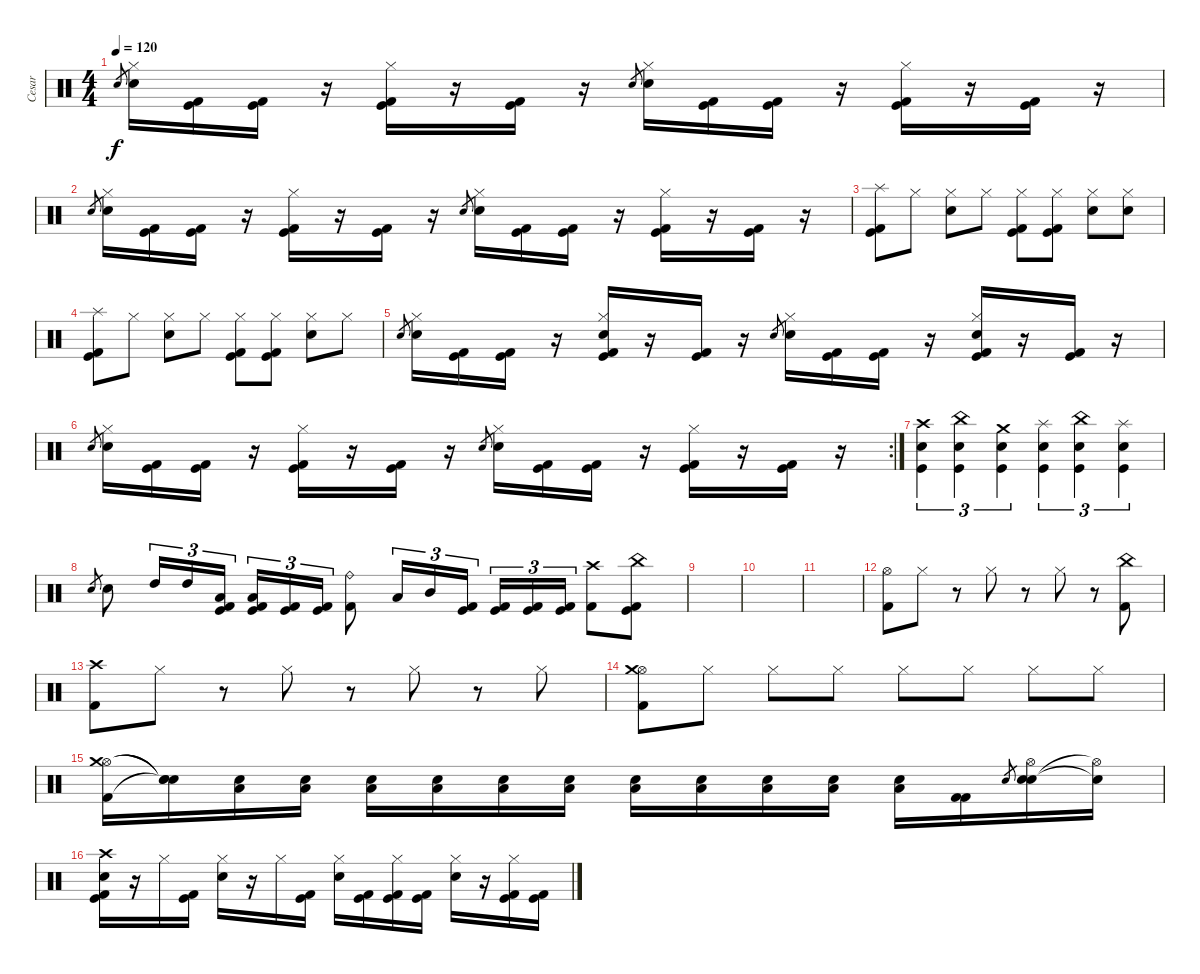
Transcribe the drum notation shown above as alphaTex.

\track ("Cesar" "Cesar") {instrument percussion}
\staff {score}
\articulation defaults
\ts (4 4)
\tempo 120
\clef neutral
\ks c "Electric Snare (hit)".8{gr dy f}
("Hi-Hat (closed)" "Electric Snare (hit)").16 ("Kick (hit) 2" "Kick (hit)").16 ("Kick (hit) 2" "Kick (hit)").16 r.16 ("Hi-Hat (closed)" "Kick (hit) 2" "Kick (hit)").16 r.16 ("Kick (hit) 2" "Kick (hit)").16 r.16 "Electric Snare (hit)".8{gr} ("Hi-Hat (closed)" "Electric Snare (hit)").16 ("Kick (hit) 2" "Kick (hit)").16 ("Kick (hit) 2" "Kick (hit)").16 r.16 ("Hi-Hat (closed)" "Kick (hit) 2" "Kick (hit)").16 r.16 ("Kick (hit) 2" "Kick (hit)").16 r.16 |
"Electric Snare (hit)".8{gr} ("Hi-Hat (closed)" "Electric Snare (hit)").16 ("Kick (hit) 2" "Kick (hit)").16 ("Kick (hit) 2" "Kick (hit)").16 r.16 ("Hi-Hat (closed)" "Kick (hit) 2" "Kick (hit)").16 r.16 ("Kick (hit) 2" "Kick (hit)").16 r.16 "Electric Snare (hit)".8{gr} ("Hi-Hat (closed)" "Electric Snare (hit)").16 ("Kick (hit) 2" "Kick (hit)").16 ("Kick (hit) 2" "Kick (hit)").16 r.16 ("Hi-Hat (closed)" "Kick (hit) 2" "Kick (hit)").16 r.16 ("Kick (hit) 2" "Kick (hit)").16 r.16 |
("Splash (hit)" "Kick (hit) 2" "Kick (hit)").8 "Hi-Hat (closed)".8 ("Hi-Hat (closed)" "Electric Snare (hit)").8 "Hi-Hat (closed)".8 ("Hi-Hat (closed)" "Kick (hit) 2" "Kick (hit)").8 ("Hi-Hat (closed)" "Kick (hit) 2" "Kick (hit)").8 ("Hi-Hat (closed)" "Electric Snare (hit)").8 ("Hi-Hat (closed)" "Electric Snare (hit)").8 |
("Splash (hit)" "Kick (hit) 2" "Kick (hit)").8 "Hi-Hat (closed)".8 ("Hi-Hat (closed)" "Electric Snare (hit)").8 "Hi-Hat (closed)".8 ("Hi-Hat (closed)" "Kick (hit) 2" "Kick (hit)").8 ("Hi-Hat (closed)" "Kick (hit) 2" "Kick (hit)").8 ("Hi-Hat (closed)" "Electric Snare (hit)").8 "Hi-Hat (closed)".8 |
"Electric Snare (hit)".8{gr} ("Hi-Hat (closed)" "Electric Snare (hit)").16 ("Kick (hit) 2" "Kick (hit)").16 ("Kick (hit) 2" "Kick (hit)").16 r.16 ("Hi-Hat (closed)" "Electric Snare (hit)" "Kick (hit) 2" "Kick (hit)").16 r.16 ("Kick (hit) 2" "Kick (hit)").16 r.16 "Electric Snare (hit)".8{gr} ("Hi-Hat (closed)" "Electric Snare (hit)").16 ("Kick (hit) 2" "Kick (hit)").16 ("Kick (hit) 2" "Kick (hit)").16 r.16 ("Hi-Hat (closed)" "Electric Snare (hit)" "Kick (hit) 2" "Kick (hit)").16 r.16 ("Kick (hit) 2" "Kick (hit)").16 r.16 |
\rc 2 "Electric Snare (hit)".8{gr}
("Hi-Hat (closed)" "Electric Snare (hit)").16 ("Kick (hit) 2" "Kick (hit)").16 ("Kick (hit) 2" "Kick (hit)").16 r.16 ("Hi-Hat (closed)" "Kick (hit) 2" "Kick (hit)").16 r.16 ("Kick (hit) 2" "Kick (hit)").16 r.16 "Electric Snare (hit)".8{gr} ("Hi-Hat (closed)" "Electric Snare (hit)").16 ("Kick (hit) 2" "Kick (hit)").16 ("Kick (hit) 2" "Kick (hit)").16 r.16 ("Hi-Hat (closed)" "Kick (hit) 2" "Kick (hit)").16 r.16 ("Kick (hit) 2" "Kick (hit)").16 r.16 |
("Crash high (hit)" "Electric Snare (hit)" "Kick (hit)").4{tu (3 2)} ("China (hit)" "Electric Snare (hit)" "Kick (hit)").4{tu (3 2)} ("Crash medium (hit)" "Electric Snare (hit)" "Kick (hit)").4{tu (3 2)} ("Splash (hit)" "Electric Snare (hit)" "Kick (hit)").4{tu (3 2)} ("China (hit)" "Electric Snare (hit)" "Kick (hit)").4{tu (3 2)} ("Splash (hit)" "Electric Snare (hit)" "Kick (hit)").4{tu (3 2)} |
"Electric Snare (hit)".8{gr} "Electric Snare (hit)".8 "High Tom (hit)".16{tu (3 2)} "High Tom (hit)".16{tu (3 2)} ("Low Tom (hit)" "Kick (hit) 2" "Kick (hit)").16{tu (3 2)} ("Low Tom (hit)" "Kick (hit) 2" "Kick (hit)").16{tu (3 2)} ("Kick (hit) 2" "Kick (hit)").16{tu (3 2)} ("Kick (hit) 2" "Kick (hit)").16{tu (3 2)} ("Ride (bell)" "Kick (hit) 2").8 "Low Tom (hit)".16{tu (3 2)} "Mid Tom (hit)".16{tu (3 2)} ("Kick (hit) 2" "Kick (hit)").16{tu (3 2)} ("Kick (hit) 2" "Kick (hit)").16{tu (3 2)} ("Kick (hit) 2" "Kick (hit)").16{tu (3 2)} ("Kick (hit) 2" "Kick (hit)").16{tu (3 2)} ("Crash high (hit)" "Kick (hit) 2").8 ("China (hit)" "Kick (hit) 2" "Kick (hit)").8 |
|
|
|
("Kick (hit) 2" "Hi-Hat (open)").8 "Hi-Hat (closed)".8 r.8 "Hi-Hat (closed)".8 r.8 "Hi-Hat (closed)".8 r.8 ("China (hit)" "Kick (hit) 2").8 |
("Crash high (hit)" "Kick (hit) 2").8 "Hi-Hat (closed)".8 r.8 "Hi-Hat (closed)".8 r.8 "Hi-Hat (closed)".8 r.8 "Hi-Hat (closed)".8 |
("Hi-Hat (open)" "Crash medium (hit)" "Kick (hit) 2").8 "Hi-Hat (closed)".8 "Hi-Hat (closed)".8 "Hi-Hat (closed)".8 "Hi-Hat (closed)".8 "Hi-Hat (closed)".8 "Hi-Hat (closed)".8 "Hi-Hat (closed)".8 |
("Hi-Hat (open)" "Kick (hit) 2" "Crash medium (hit)").16 ("Snare (hit)"{t} "Snare (hit)"{t} "Snare (hit)"{t}).16 ("Low Floor Tom (hit)" "Electric Snare (hit)").16 ("Electric Snare (hit)" "Low Floor Tom (hit)").16 ("Electric Snare (hit)" "Low Floor Tom (hit)").16 ("Electric Snare (hit)" "Low Floor Tom (hit)").16 ("Electric Snare (hit)" "Low Floor Tom (hit)").16 ("Electric Snare (hit)" "Low Floor Tom (hit)").16 ("Electric Snare (hit)" "Low Floor Tom (hit)").16 ("Electric Snare (hit)" "Low Floor Tom (hit)").16 ("Electric Snare (hit)" "Low Floor Tom (hit)").16 ("Electric Snare (hit)" "Low Floor Tom (hit)").16 ("Electric Snare (hit)" "Low Floor Tom (hit)").16 ("Kick (hit) 2" "Kick (hit) 2").16 "Electric Snare (hit)".8{gr} ("Electric Snare (hit)" "Electric Snare (hit)" "Hi-Hat (open)").16 ("Electric Snare (hit)"{t} "Hi-Hat (open)"{t}).16 |
("Crash high (hit)" "Electric Snare (hit)" "Kick (hit) 2" "Kick (hit)").16 r.16 "Hi-Hat (closed)".16 ("Kick (hit)" "Kick (hit) 2").16 ("Hi-Hat (closed)" "Electric Snare (hit)").16 r.16 "Hi-Hat (closed)".16 ("Kick (hit) 2" "Kick (hit)").16 ("Hi-Hat (closed)" "Electric Snare (hit)").16 ("Kick (hit) 2" "Kick (hit)").16 ("Hi-Hat (closed)" "Kick (hit) 2" "Kick (hit)").16 ("Kick (hit) 2" "Kick (hit)").16 ("Hi-Hat (closed)" "Electric Snare (hit)").16 r.16 ("Hi-Hat (closed)" "Kick (hit) 2" "Kick (hit)").16 ("Kick (hit) 2" "Kick (hit)").16
